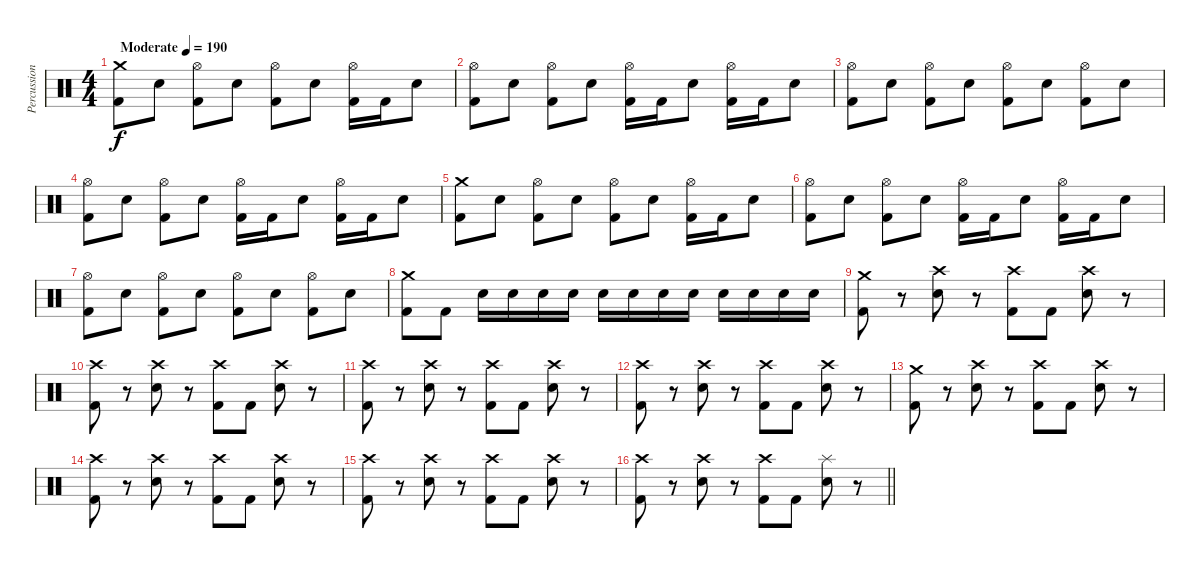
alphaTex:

\track ("Percussion" "Percussion") {instrument percussion}
\staff {score}
\articulation defaults
\ts (4 4)
\tempo (190 "Moderate")
\clef neutral
\ks c
("Crash medium (hit)" "Kick (hit) 2").8{dy f} "Snare (hit) 2".8 ("Hi-Hat (open)" "Kick (hit) 2").8 "Snare (hit) 2".8 ("Hi-Hat (open)" "Kick (hit) 2").8 "Snare (hit) 2".8 ("Hi-Hat (open)" "Kick (hit) 2").16 "Kick (hit) 2".16 "Snare (hit) 2".8 |
("Hi-Hat (open)" "Kick (hit) 2").8 "Snare (hit) 2".8 ("Hi-Hat (open)" "Kick (hit) 2").8 "Snare (hit) 2".8 ("Hi-Hat (open)" "Kick (hit) 2").16 "Kick (hit) 2".16 "Snare (hit) 2".8 ("Hi-Hat (open)" "Kick (hit) 2").16 "Kick (hit) 2".16 "Snare (hit) 2".8 |
("Hi-Hat (open)" "Kick (hit) 2").8 "Snare (hit) 2".8 ("Hi-Hat (open)" "Kick (hit) 2").8 "Snare (hit) 2".8 ("Hi-Hat (open)" "Kick (hit) 2").8 "Snare (hit) 2".8 ("Hi-Hat (open)" "Kick (hit) 2").8 "Snare (hit) 2".8 |
("Hi-Hat (open)" "Kick (hit) 2").8 "Snare (hit) 2".8 ("Hi-Hat (open)" "Kick (hit) 2").8 "Snare (hit) 2".8 ("Hi-Hat (open)" "Kick (hit) 2").16 "Kick (hit) 2".16 "Snare (hit) 2".8 ("Hi-Hat (open)" "Kick (hit) 2").16 "Kick (hit) 2".16 "Snare (hit) 2".8 |
("Crash medium (hit)" "Kick (hit) 2").8 "Snare (hit) 2".8 ("Hi-Hat (open)" "Kick (hit) 2").8 "Snare (hit) 2".8 ("Hi-Hat (open)" "Kick (hit) 2").8 "Snare (hit) 2".8 ("Hi-Hat (open)" "Kick (hit) 2").16 "Kick (hit) 2".16 "Snare (hit) 2".8 |
("Hi-Hat (open)" "Kick (hit) 2").8 "Snare (hit) 2".8 ("Hi-Hat (open)" "Kick (hit) 2").8 "Snare (hit) 2".8 ("Hi-Hat (open)" "Kick (hit) 2").16 "Kick (hit) 2".16 "Snare (hit) 2".8 ("Hi-Hat (open)" "Kick (hit) 2").16 "Kick (hit) 2".16 "Snare (hit) 2".8 |
("Hi-Hat (open)" "Kick (hit) 2").8 "Snare (hit) 2".8 ("Hi-Hat (open)" "Kick (hit) 2").8 "Snare (hit) 2".8 ("Hi-Hat (open)" "Kick (hit) 2").8 "Snare (hit) 2".8 ("Hi-Hat (open)" "Kick (hit) 2").8 "Snare (hit) 2".8 |
("Crash medium (hit)" "Kick (hit) 2").8 "Kick (hit) 2".8 "Snare (hit) 2".16 "Snare (hit) 2".16 "Snare (hit) 2".16 "Snare (hit) 2".16 "Snare (hit) 2".16 "Snare (hit) 2".16 "Snare (hit) 2".16 "Snare (hit) 2".16 "Snare (hit) 2".16 "Snare (hit) 2".16 "Snare (hit) 2".16 "Snare (hit) 2".16 |
("Crash medium (hit)" "Kick (hit) 2").8 r.8 ("Crash high (hit)" "Snare (hit) 2").8 r.8 ("Crash high (hit)" "Kick (hit) 2").8 "Kick (hit) 2".8 ("Crash high (hit)" "Snare (hit) 2").8 r.8 |
("Crash high (hit)" "Kick (hit) 2").8 r.8 ("Crash high (hit)" "Snare (hit) 2").8 r.8 ("Crash high (hit)" "Kick (hit) 2").8 "Kick (hit) 2".8 ("Crash high (hit)" "Snare (hit) 2").8 r.8 |
("Crash high (hit)" "Kick (hit) 2").8 r.8 ("Crash high (hit)" "Snare (hit) 2").8 r.8 ("Crash high (hit)" "Kick (hit) 2").8 "Kick (hit) 2".8 ("Crash high (hit)" "Snare (hit) 2").8 r.8 |
("Crash high (hit)" "Kick (hit) 2").8 r.8 ("Crash high (hit)" "Snare (hit) 2").8 r.8 ("Crash high (hit)" "Kick (hit) 2").8 "Kick (hit) 2".8 ("Crash high (hit)" "Snare (hit) 2").8 r.8 |
("Crash medium (hit)" "Kick (hit) 2").8 r.8 ("Crash high (hit)" "Snare (hit) 2").8 r.8 ("Crash high (hit)" "Kick (hit) 2").8 "Kick (hit) 2".8 ("Crash high (hit)" "Snare (hit) 2").8 r.8 |
("Crash high (hit)" "Kick (hit) 2").8 r.8 ("Crash high (hit)" "Snare (hit) 2").8 r.8 ("Crash high (hit)" "Kick (hit) 2").8 "Kick (hit) 2".8 ("Crash high (hit)" "Snare (hit) 2").8 r.8 |
("Crash high (hit)" "Kick (hit) 2").8 r.8 ("Crash high (hit)" "Snare (hit) 2").8 r.8 ("Crash high (hit)" "Kick (hit) 2").8 "Kick (hit) 2".8 ("Crash high (hit)" "Snare (hit) 2").8 r.8 |
\barLineRight lightlight
("Crash high (hit)" "Kick (hit) 2").8 r.8 ("Crash high (hit)" "Snare (hit) 2").8 r.8 ("Crash high (hit)" "Kick (hit) 2").8 "Kick (hit) 2".8 ("Splash (hit)" "Snare (hit) 2").8 r.8
